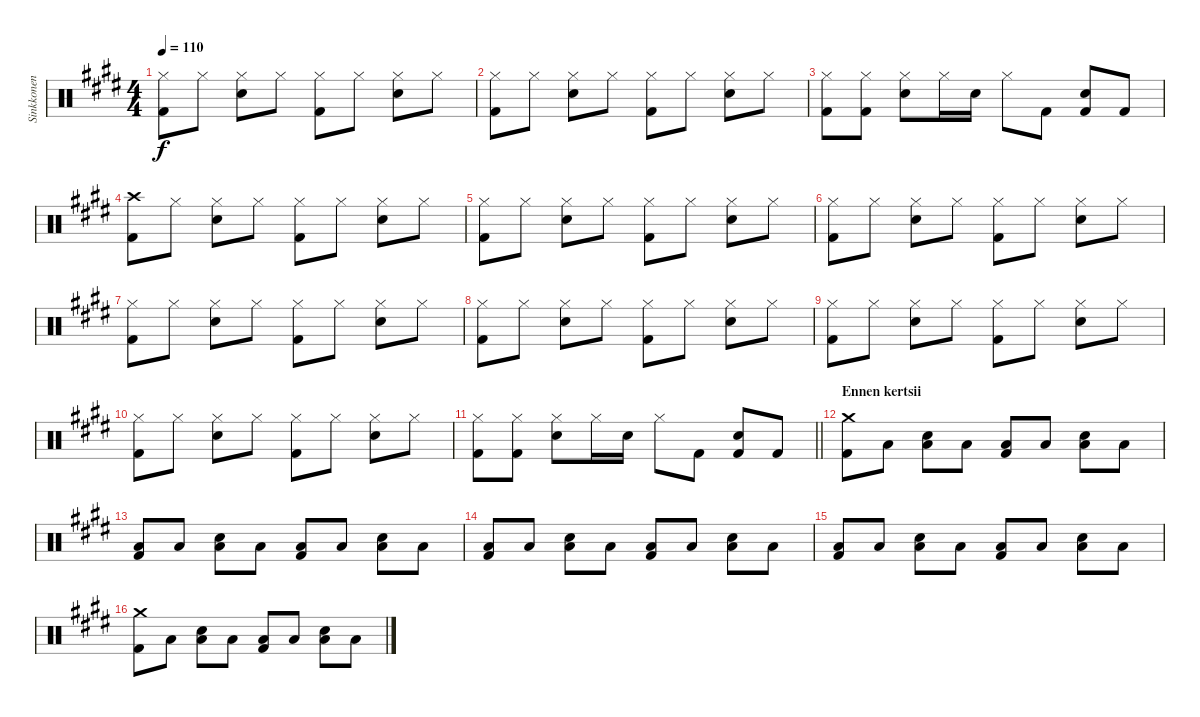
\track ("Sinkkonen" "Sinkkonen") {instrument percussion}
\staff {score}
\articulation defaults
\ts (4 4)
\tempo 110
\clef neutral
\ks c#minor
("Hi-Hat (closed)" "Kick (hit) 2").8{dy f} "Hi-Hat (closed)".8 ("Hi-Hat (closed)" "Snare (hit) 2").8 "Hi-Hat (closed)".8 ("Hi-Hat (closed)" "Kick (hit) 2").8 "Hi-Hat (closed)".8 ("Hi-Hat (closed)" "Snare (hit) 2").8 "Hi-Hat (closed)".8 |
("Hi-Hat (closed)" "Kick (hit) 2").8 "Hi-Hat (closed)".8 ("Hi-Hat (closed)" "Snare (hit) 2").8 "Hi-Hat (closed)".8 ("Hi-Hat (closed)" "Kick (hit) 2").8 "Hi-Hat (closed)".8 ("Hi-Hat (closed)" "Snare (hit) 2").8 "Hi-Hat (closed)".8 |
("Hi-Hat (closed)" "Kick (hit) 2").8 ("Hi-Hat (closed)" "Kick (hit) 2").8 ("Hi-Hat (closed)" "Snare (hit) 2").8 "Hi-Hat (closed)".16 "Snare (hit) 2".16 "Hi-Hat (closed)".8 "Kick (hit) 2".8 ("Snare (hit) 2" "Kick (hit) 2").8 "Kick (hit) 2".8 |
("Crash high (hit)" "Kick (hit) 2").8 "Hi-Hat (closed)".8 ("Hi-Hat (closed)" "Snare (hit) 2").8 "Hi-Hat (closed)".8 ("Hi-Hat (closed)" "Kick (hit) 2").8 "Hi-Hat (closed)".8 ("Hi-Hat (closed)" "Snare (hit) 2").8 "Hi-Hat (closed)".8 |
("Hi-Hat (closed)" "Kick (hit) 2").8 "Hi-Hat (closed)".8 ("Hi-Hat (closed)" "Snare (hit) 2").8 "Hi-Hat (closed)".8 ("Hi-Hat (closed)" "Kick (hit) 2").8 "Hi-Hat (closed)".8 ("Hi-Hat (closed)" "Snare (hit) 2").8 "Hi-Hat (closed)".8 |
("Hi-Hat (closed)" "Kick (hit) 2").8 "Hi-Hat (closed)".8 ("Hi-Hat (closed)" "Snare (hit) 2").8 "Hi-Hat (closed)".8 ("Hi-Hat (closed)" "Kick (hit) 2").8 "Hi-Hat (closed)".8 ("Hi-Hat (closed)" "Snare (hit) 2").8 "Hi-Hat (closed)".8 |
("Hi-Hat (closed)" "Kick (hit) 2").8 "Hi-Hat (closed)".8 ("Hi-Hat (closed)" "Snare (hit) 2").8 "Hi-Hat (closed)".8 ("Hi-Hat (closed)" "Kick (hit) 2").8 "Hi-Hat (closed)".8 ("Hi-Hat (closed)" "Snare (hit) 2").8 "Hi-Hat (closed)".8 |
("Hi-Hat (closed)" "Kick (hit) 2").8 "Hi-Hat (closed)".8 ("Hi-Hat (closed)" "Snare (hit) 2").8 "Hi-Hat (closed)".8 ("Hi-Hat (closed)" "Kick (hit) 2").8 "Hi-Hat (closed)".8 ("Hi-Hat (closed)" "Snare (hit) 2").8 "Hi-Hat (closed)".8 |
("Hi-Hat (closed)" "Kick (hit) 2").8 "Hi-Hat (closed)".8 ("Hi-Hat (closed)" "Snare (hit) 2").8 "Hi-Hat (closed)".8 ("Hi-Hat (closed)" "Kick (hit) 2").8 "Hi-Hat (closed)".8 ("Hi-Hat (closed)" "Snare (hit) 2").8 "Hi-Hat (closed)".8 |
("Hi-Hat (closed)" "Kick (hit) 2").8 "Hi-Hat (closed)".8 ("Hi-Hat (closed)" "Snare (hit) 2").8 "Hi-Hat (closed)".8 ("Hi-Hat (closed)" "Kick (hit) 2").8 "Hi-Hat (closed)".8 ("Hi-Hat (closed)" "Snare (hit) 2").8 "Hi-Hat (closed)".8 |
\barLineRight lightlight
("Hi-Hat (closed)" "Kick (hit) 2").8 ("Hi-Hat (closed)" "Kick (hit) 2").8 ("Hi-Hat (closed)" "Snare (hit) 2").8 "Hi-Hat (closed)".16 "Snare (hit) 2".16 "Hi-Hat (closed)".8 "Kick (hit) 2".8 ("Snare (hit) 2" "Kick (hit) 2").8 "Kick (hit) 2".8 |
\section ("" "Ennen kertsii")
("Crash medium (hit)" "Kick (hit) 2").8 "Low Floor Tom (hit)".8 ("Low Floor Tom (hit)" "Snare (hit) 2").8 "Low Floor Tom (hit)".8 ("Low Floor Tom (hit)" "Kick (hit) 2").8 "Low Floor Tom (hit)".8 ("Low Floor Tom (hit)" "Snare (hit) 2").8 "Low Floor Tom (hit)".8 |
("Low Floor Tom (hit)" "Kick (hit) 2").8 "Low Floor Tom (hit)".8 ("Low Floor Tom (hit)" "Snare (hit) 2").8 "Low Floor Tom (hit)".8 ("Low Floor Tom (hit)" "Kick (hit) 2").8 "Low Floor Tom (hit)".8 ("Low Floor Tom (hit)" "Snare (hit) 2").8 "Low Floor Tom (hit)".8 |
("Low Floor Tom (hit)" "Kick (hit) 2").8 "Low Floor Tom (hit)".8 ("Low Floor Tom (hit)" "Snare (hit) 2").8 "Low Floor Tom (hit)".8 ("Low Floor Tom (hit)" "Kick (hit) 2").8 "Low Floor Tom (hit)".8 ("Low Floor Tom (hit)" "Snare (hit) 2").8 "Low Floor Tom (hit)".8 |
("Low Floor Tom (hit)" "Kick (hit) 2").8 "Low Floor Tom (hit)".8 ("Low Floor Tom (hit)" "Snare (hit) 2").8 "Low Floor Tom (hit)".8 ("Low Floor Tom (hit)" "Kick (hit) 2").8 "Low Floor Tom (hit)".8 ("Low Floor Tom (hit)" "Snare (hit) 2").8 "Low Floor Tom (hit)".8 |
("Crash medium (hit)" "Kick (hit) 2").8 "Low Floor Tom (hit)".8 ("Low Floor Tom (hit)" "Snare (hit) 2").8 "Low Floor Tom (hit)".8 ("Low Floor Tom (hit)" "Kick (hit) 2").8 "Low Floor Tom (hit)".8 ("Low Floor Tom (hit)" "Snare (hit) 2").8 "Low Floor Tom (hit)".8
